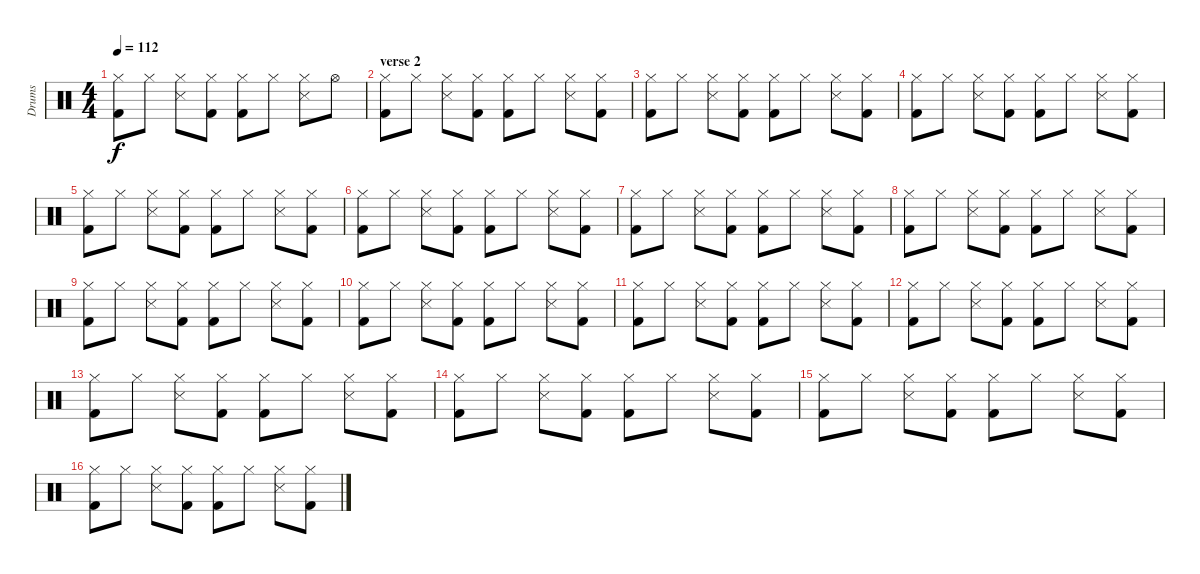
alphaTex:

\track ("Drums" "Drums") {instrument percussion}
\staff {score}
\articulation defaults
\ts (4 4)
\tempo 112
\clef neutral
\ks c
("Hi-Hat (closed)" "Kick (hit) 2").8{dy f} "Hi-Hat (closed)".8 ("Hi-Hat (closed)" "Snare (side stick) 3").8 ("Hi-Hat (closed)" "Kick (hit) 2").8 ("Hi-Hat (closed)" "Kick (hit) 2").8 "Hi-Hat (closed)".8 ("Hi-Hat (closed)" "Snare (side stick) 3").8 "Hi-Hat (open)".8 |
\section ("" "verse 2")
("Hi-Hat (closed)" "Kick (hit) 2").8 "Hi-Hat (closed)".8 ("Hi-Hat (closed)" "Snare (side stick) 3").8 ("Hi-Hat (closed)" "Kick (hit) 2").8 ("Hi-Hat (closed)" "Kick (hit) 2").8 "Hi-Hat (closed)".8 ("Hi-Hat (closed)" "Snare (side stick) 3").8 ("Hi-Hat (closed)" "Kick (hit) 2").8 |
("Hi-Hat (closed)" "Kick (hit) 2").8 "Hi-Hat (closed)".8 ("Hi-Hat (closed)" "Snare (side stick) 3").8 ("Hi-Hat (closed)" "Kick (hit) 2").8 ("Hi-Hat (closed)" "Kick (hit) 2").8 "Hi-Hat (closed)".8 ("Hi-Hat (closed)" "Snare (side stick) 3").8 ("Hi-Hat (closed)" "Kick (hit) 2").8 |
("Hi-Hat (closed)" "Kick (hit) 2").8 "Hi-Hat (closed)".8 ("Hi-Hat (closed)" "Snare (side stick) 3").8 ("Hi-Hat (closed)" "Kick (hit) 2").8 ("Hi-Hat (closed)" "Kick (hit) 2").8 "Hi-Hat (closed)".8 ("Hi-Hat (closed)" "Snare (side stick) 3").8 ("Hi-Hat (closed)" "Kick (hit) 2").8 |
("Hi-Hat (closed)" "Kick (hit) 2").8 "Hi-Hat (closed)".8 ("Hi-Hat (closed)" "Snare (side stick) 3").8 ("Hi-Hat (closed)" "Kick (hit) 2").8 ("Hi-Hat (closed)" "Kick (hit) 2").8 "Hi-Hat (closed)".8 ("Hi-Hat (closed)" "Snare (side stick) 3").8 ("Hi-Hat (closed)" "Kick (hit) 2").8 |
("Hi-Hat (closed)" "Kick (hit) 2").8 "Hi-Hat (closed)".8 ("Hi-Hat (closed)" "Snare (side stick) 3").8 ("Hi-Hat (closed)" "Kick (hit) 2").8 ("Hi-Hat (closed)" "Kick (hit) 2").8 "Hi-Hat (closed)".8 ("Hi-Hat (closed)" "Snare (side stick) 3").8 ("Hi-Hat (closed)" "Kick (hit) 2").8 |
("Hi-Hat (closed)" "Kick (hit) 2").8 "Hi-Hat (closed)".8 ("Hi-Hat (closed)" "Snare (side stick) 3").8 ("Hi-Hat (closed)" "Kick (hit) 2").8 ("Hi-Hat (closed)" "Kick (hit) 2").8 "Hi-Hat (closed)".8 ("Hi-Hat (closed)" "Snare (side stick) 3").8 ("Hi-Hat (closed)" "Kick (hit) 2").8 |
("Hi-Hat (closed)" "Kick (hit) 2").8 "Hi-Hat (closed)".8 ("Hi-Hat (closed)" "Snare (side stick) 3").8 ("Hi-Hat (closed)" "Kick (hit) 2").8 ("Hi-Hat (closed)" "Kick (hit) 2").8 "Hi-Hat (closed)".8 ("Hi-Hat (closed)" "Snare (side stick) 3").8 ("Hi-Hat (closed)" "Kick (hit) 2").8 |
("Hi-Hat (closed)" "Kick (hit) 2").8 "Hi-Hat (closed)".8 ("Hi-Hat (closed)" "Snare (side stick) 3").8 ("Hi-Hat (closed)" "Kick (hit) 2").8 ("Hi-Hat (closed)" "Kick (hit) 2").8 "Hi-Hat (closed)".8 ("Hi-Hat (closed)" "Snare (side stick) 3").8 ("Hi-Hat (closed)" "Kick (hit) 2").8 |
("Hi-Hat (closed)" "Kick (hit) 2").8 "Hi-Hat (closed)".8 ("Hi-Hat (closed)" "Snare (side stick) 3").8 ("Hi-Hat (closed)" "Kick (hit) 2").8 ("Hi-Hat (closed)" "Kick (hit) 2").8 "Hi-Hat (closed)".8 ("Hi-Hat (closed)" "Snare (side stick) 3").8 ("Hi-Hat (closed)" "Kick (hit) 2").8 |
("Hi-Hat (closed)" "Kick (hit) 2").8 "Hi-Hat (closed)".8 ("Hi-Hat (closed)" "Snare (side stick) 3").8 ("Hi-Hat (closed)" "Kick (hit) 2").8 ("Hi-Hat (closed)" "Kick (hit) 2").8 "Hi-Hat (closed)".8 ("Hi-Hat (closed)" "Snare (side stick) 3").8 ("Hi-Hat (closed)" "Kick (hit) 2").8 |
("Hi-Hat (closed)" "Kick (hit) 2").8 "Hi-Hat (closed)".8 ("Hi-Hat (closed)" "Snare (side stick) 3").8 ("Hi-Hat (closed)" "Kick (hit) 2").8 ("Hi-Hat (closed)" "Kick (hit) 2").8 "Hi-Hat (closed)".8 ("Hi-Hat (closed)" "Snare (side stick) 3").8 ("Hi-Hat (closed)" "Kick (hit) 2").8 |
("Hi-Hat (closed)" "Kick (hit) 2").8 "Hi-Hat (closed)".8 ("Hi-Hat (closed)" "Snare (side stick) 3").8 ("Hi-Hat (closed)" "Kick (hit) 2").8 ("Hi-Hat (closed)" "Kick (hit) 2").8 "Hi-Hat (closed)".8 ("Hi-Hat (closed)" "Snare (side stick) 3").8 ("Hi-Hat (closed)" "Kick (hit) 2").8 |
("Hi-Hat (closed)" "Kick (hit) 2").8 "Hi-Hat (closed)".8 ("Hi-Hat (closed)" "Snare (side stick) 3").8 ("Hi-Hat (closed)" "Kick (hit) 2").8 ("Hi-Hat (closed)" "Kick (hit) 2").8 "Hi-Hat (closed)".8 ("Hi-Hat (closed)" "Snare (side stick) 3").8 ("Hi-Hat (closed)" "Kick (hit) 2").8 |
("Hi-Hat (closed)" "Kick (hit) 2").8 "Hi-Hat (closed)".8 ("Hi-Hat (closed)" "Snare (side stick) 3").8 ("Hi-Hat (closed)" "Kick (hit) 2").8 ("Hi-Hat (closed)" "Kick (hit) 2").8 "Hi-Hat (closed)".8 ("Hi-Hat (closed)" "Snare (side stick) 3").8 ("Hi-Hat (closed)" "Kick (hit) 2").8 |
("Hi-Hat (closed)" "Kick (hit) 2").8 "Hi-Hat (closed)".8 ("Hi-Hat (closed)" "Snare (side stick) 3").8 ("Hi-Hat (closed)" "Kick (hit) 2").8 ("Hi-Hat (closed)" "Kick (hit) 2").8 "Hi-Hat (closed)".8 ("Hi-Hat (closed)" "Snare (side stick) 3").8 ("Hi-Hat (closed)" "Kick (hit) 2").8
